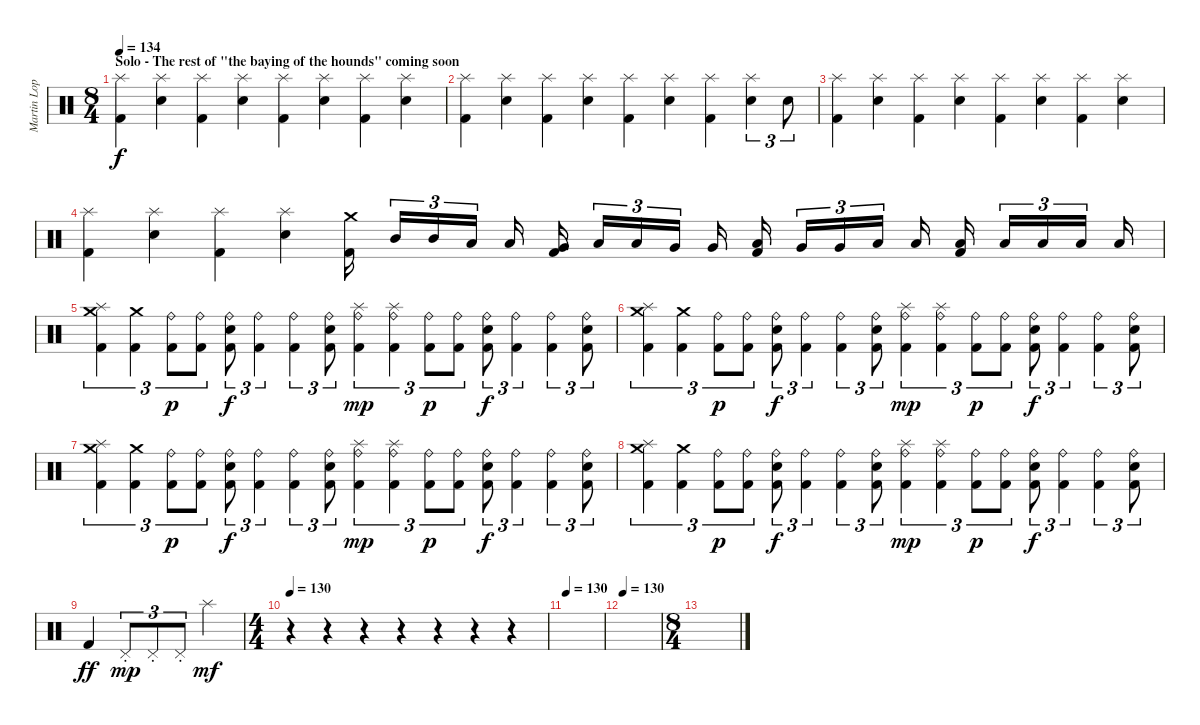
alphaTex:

\track ("Martin Lopez" "Martin Lop") {instrument percussion}
\staff {score}
\articulation defaults
\ts (8 4)
\section ("" "Solo - The rest of \"the baying of the hounds\" coming soon")
\tempo 134
\clef neutral
\ks c
("Splash (hit)" "Kick (hit) 2").4{dy f} ("Splash (hit)" "Electric Snare (hit)").4 ("Splash (hit)" "Kick (hit) 2").4 ("Splash (hit)" "Electric Snare (hit)").4 ("Splash (hit)" "Kick (hit) 2").4 ("Splash (hit)" "Electric Snare (hit)").4 ("Splash (hit)" "Kick (hit) 2").4 ("Splash (hit)" "Electric Snare (hit)").4 |
("Splash (hit)" "Kick (hit) 2").4 ("Splash (hit)" "Electric Snare (hit)").4 ("Splash (hit)" "Kick (hit) 2").4 ("Splash (hit)" "Electric Snare (hit)").4 ("Splash (hit)" "Kick (hit) 2").4 ("Splash (hit)" "Electric Snare (hit)").4 ("Splash (hit)" "Kick (hit) 2").4 ("Splash (hit)" "Electric Snare (hit)").4{tu (3 2)} "Electric Snare (hit)".8{tu (3 2)} |
("Splash (hit)" "Kick (hit) 2").4 ("Splash (hit)" "Electric Snare (hit)").4 ("Splash (hit)" "Kick (hit) 2").4 ("Splash (hit)" "Electric Snare (hit)").4 ("Splash (hit)" "Kick (hit) 2").4 ("Splash (hit)" "Electric Snare (hit)").4 ("Splash (hit)" "Kick (hit) 2").4 ("Splash (hit)" "Electric Snare (hit)").4 |
("Splash (hit)" "Kick (hit) 2").4 ("Splash (hit)" "Electric Snare (hit)").4 ("Splash (hit)" "Kick (hit) 2").4 ("Splash (hit)" "Electric Snare (hit)").4 ("Crash medium (hit)" "Kick (hit) 2").16 "Mid Tom (hit)".16{tu (3 2)} "Mid Tom (hit)".16{tu (3 2)} "Low Tom (hit)".16{tu (3 2)} "Low Tom (hit)".16 ("Very Low Tom (hit)" "Kick (hit) 2").16 "Low Tom (hit)".16{tu (3 2)} "Low Tom (hit)".16{tu (3 2)} "Very Low Tom (hit)".16{tu (3 2)} "Very Low Tom (hit)".16 ("Low Floor Tom (hit)" "Kick (hit) 2").16 "Very Low Tom (hit)".16{tu (3 2)} "Very Low Tom (hit)".16{tu (3 2)} "Low Floor Tom (hit)".16{tu (3 2)} "Low Floor Tom (hit)".16 ("Low Floor Tom (hit)" "Kick (hit) 2").16 "Low Floor Tom (hit)".16{tu (3 2)} "Low Floor Tom (hit)".16{tu (3 2)} "Low Floor Tom (hit)".16{tu (3 2)} "Low Floor Tom (hit)".16 |
("Crash medium (hit)" "Splash (hit)" "Kick (hit) 2").4{tu (3 2)} ("Crash medium (hit)" "Kick (hit) 2").4{tu (3 2)} ("Ride (bell)" "Kick (hit) 2").8{tu (3 2) dy p} ("Ride (bell)" "Kick (hit) 2").8{tu (3 2)} ("Ride (bell)" "Electric Snare (hit)" "Kick (hit) 2").8{tu (3 2) dy f} ("Ride (bell)" "Kick (hit) 2").4{tu (3 2)} ("Ride (bell)" "Kick (hit) 2").4{tu (3 2)} ("Ride (bell)" "Electric Snare (hit)" "Kick (hit) 2").8{tu (3 2)} ("Splash (hit)" "Ride (bell)" "Kick (hit) 2").4{tu (3 2) dy mp} ("Splash (hit)" "Ride (bell)" "Kick (hit) 2").4{tu (3 2)} ("Ride (bell)" "Kick (hit) 2").8{tu (3 2) dy p} ("Ride (bell)" "Kick (hit) 2").8{tu (3 2)} ("Ride (bell)" "Electric Snare (hit)" "Kick (hit) 2").8{tu (3 2) dy f} ("Ride (bell)" "Kick (hit) 2").4{tu (3 2)} ("Ride (bell)" "Kick (hit) 2").4{tu (3 2)} ("Ride (bell)" "Electric Snare (hit)" "Kick (hit) 2").8{tu (3 2)} |
("Crash medium (hit)" "Splash (hit)" "Kick (hit) 2").4{tu (3 2)} ("Crash medium (hit)" "Kick (hit) 2").4{tu (3 2)} ("Ride (bell)" "Kick (hit) 2").8{tu (3 2) dy p} ("Ride (bell)" "Kick (hit) 2").8{tu (3 2)} ("Ride (bell)" "Electric Snare (hit)" "Kick (hit) 2").8{tu (3 2) dy f} ("Ride (bell)" "Kick (hit) 2").4{tu (3 2)} ("Ride (bell)" "Kick (hit) 2").4{tu (3 2)} ("Ride (bell)" "Electric Snare (hit)" "Kick (hit) 2").8{tu (3 2)} ("Splash (hit)" "Ride (bell)" "Kick (hit) 2").4{tu (3 2) dy mp} ("Splash (hit)" "Ride (bell)" "Kick (hit) 2").4{tu (3 2)} ("Ride (bell)" "Kick (hit) 2").8{tu (3 2) dy p} ("Ride (bell)" "Kick (hit) 2").8{tu (3 2)} ("Ride (bell)" "Electric Snare (hit)" "Kick (hit) 2").8{tu (3 2) dy f} ("Ride (bell)" "Kick (hit) 2").4{tu (3 2)} ("Ride (bell)" "Kick (hit) 2").4{tu (3 2)} ("Ride (bell)" "Electric Snare (hit)" "Kick (hit) 2").8{tu (3 2)} |
("Crash medium (hit)" "Splash (hit)" "Kick (hit) 2").4{tu (3 2)} ("Crash medium (hit)" "Kick (hit) 2").4{tu (3 2)} ("Ride (bell)" "Kick (hit) 2").8{tu (3 2) dy p} ("Ride (bell)" "Kick (hit) 2").8{tu (3 2)} ("Ride (bell)" "Electric Snare (hit)" "Kick (hit) 2").8{tu (3 2) dy f} ("Ride (bell)" "Kick (hit) 2").4{tu (3 2)} ("Ride (bell)" "Kick (hit) 2").4{tu (3 2)} ("Ride (bell)" "Electric Snare (hit)" "Kick (hit) 2").8{tu (3 2)} ("Splash (hit)" "Ride (bell)" "Kick (hit) 2").4{tu (3 2) dy mp} ("Splash (hit)" "Ride (bell)" "Kick (hit) 2").4{tu (3 2)} ("Ride (bell)" "Kick (hit) 2").8{tu (3 2) dy p} ("Ride (bell)" "Kick (hit) 2").8{tu (3 2)} ("Ride (bell)" "Electric Snare (hit)" "Kick (hit) 2").8{tu (3 2) dy f} ("Ride (bell)" "Kick (hit) 2").4{tu (3 2)} ("Ride (bell)" "Kick (hit) 2").4{tu (3 2)} ("Ride (bell)" "Electric Snare (hit)" "Kick (hit) 2").8{tu (3 2)} |
("Crash medium (hit)" "Splash (hit)" "Kick (hit) 2").4{tu (3 2)} ("Crash medium (hit)" "Kick (hit) 2").4{tu (3 2)} ("Ride (bell)" "Kick (hit) 2").8{tu (3 2) dy p} ("Ride (bell)" "Kick (hit) 2").8{tu (3 2)} ("Ride (bell)" "Electric Snare (hit)" "Kick (hit) 2").8{tu (3 2) dy f} ("Ride (bell)" "Kick (hit) 2").4{tu (3 2)} ("Ride (bell)" "Kick (hit) 2").4{tu (3 2)} ("Ride (bell)" "Electric Snare (hit)" "Kick (hit) 2").8{tu (3 2)} ("Splash (hit)" "Ride (bell)" "Kick (hit) 2").4{tu (3 2) dy mp} ("Splash (hit)" "Ride (bell)" "Kick (hit) 2").4{tu (3 2)} ("Ride (bell)" "Kick (hit) 2").8{tu (3 2) dy p} ("Ride (bell)" "Kick (hit) 2").8{tu (3 2)} ("Ride (bell)" "Electric Snare (hit)" "Kick (hit) 2").8{tu (3 2) dy f} ("Ride (bell)" "Kick (hit) 2").4{tu (3 2)} ("Ride (bell)" "Kick (hit) 2").4{tu (3 2)} ("Ride (bell)" "Electric Snare (hit)" "Kick (hit) 2").8{tu (3 2)} |
"Kick (hit) 2".4{dy ff} "Pedal Hi-Hat (hit)"{st}.8{tu (3 2) dy mp} "Pedal Hi-Hat (hit)"{st}.8{tu (3 2)} "Pedal Hi-Hat (hit)"{st}.8{tu (3 2)} "Splash (hit)".4{dy mf} |
\ts (4 4)
\tempo 130
r.4 r.4 r.4 r.4 r.4 r.4 r.4 |
\tempo 130
|
\tempo 130
|
\ts (8 4)
